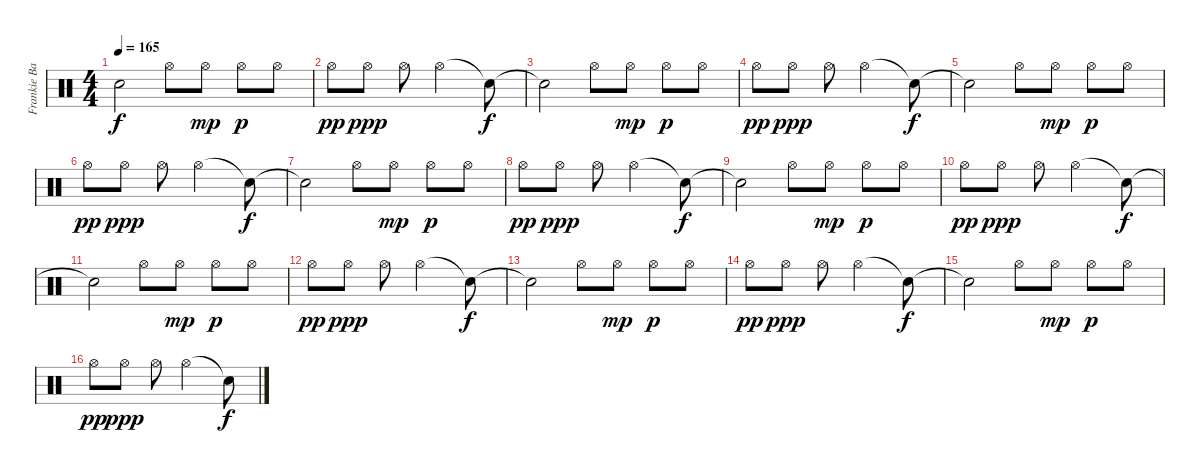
\track ("Frankie Banali/Drums" "Frankie Ba") {instrument percussion}
\staff {score}
\articulation defaults
\ts (4 4)
\tempo 165
\clef neutral
\ks c "Snare (hit)"{t}.2{dy f} "Hi-Hat (open)".8 "Hi-Hat (open)".8{dy mp} "Hi-Hat (open)".8{dy p} "Hi-Hat (open)".8
|
"Hi-Hat (open)".8{dy pp} "Hi-Hat (open)".8{dy ppp} "Hi-Hat (open)".8 "Hi-Hat (open)".2 "Snare (hit)"{t}.8{dy f} |
"Snare (hit)"{t}.2 "Hi-Hat (open)".8 "Hi-Hat (open)".8{dy mp} "Hi-Hat (open)".8{dy p} "Hi-Hat (open)".8 |
"Hi-Hat (open)".8{dy pp} "Hi-Hat (open)".8{dy ppp} "Hi-Hat (open)".8 "Hi-Hat (open)".2 "Snare (hit)"{t}.8{dy f} |
"Snare (hit)"{t}.2 "Hi-Hat (open)".8 "Hi-Hat (open)".8{dy mp} "Hi-Hat (open)".8{dy p} "Hi-Hat (open)".8 |
"Hi-Hat (open)".8{dy pp} "Hi-Hat (open)".8{dy ppp} "Hi-Hat (open)".8 "Hi-Hat (open)".2 "Snare (hit)"{t}.8{dy f} |
"Snare (hit)"{t}.2 "Hi-Hat (open)".8 "Hi-Hat (open)".8{dy mp} "Hi-Hat (open)".8{dy p} "Hi-Hat (open)".8 |
"Hi-Hat (open)".8{dy pp} "Hi-Hat (open)".8{dy ppp} "Hi-Hat (open)".8 "Hi-Hat (open)".2 "Snare (hit)"{t}.8{dy f} |
"Snare (hit)"{t}.2 "Hi-Hat (open)".8 "Hi-Hat (open)".8{dy mp} "Hi-Hat (open)".8{dy p} "Hi-Hat (open)".8 |
"Hi-Hat (open)".8{dy pp} "Hi-Hat (open)".8{dy ppp} "Hi-Hat (open)".8 "Hi-Hat (open)".2 "Snare (hit)"{t}.8{dy f} |
"Snare (hit)"{t}.2 "Hi-Hat (open)".8 "Hi-Hat (open)".8{dy mp} "Hi-Hat (open)".8{dy p} "Hi-Hat (open)".8 |
"Hi-Hat (open)".8{dy pp} "Hi-Hat (open)".8{dy ppp} "Hi-Hat (open)".8 "Hi-Hat (open)".2 "Snare (hit)"{t}.8{dy f} |
"Snare (hit)"{t}.2 "Hi-Hat (open)".8 "Hi-Hat (open)".8{dy mp} "Hi-Hat (open)".8{dy p} "Hi-Hat (open)".8 |
"Hi-Hat (open)".8{dy pp} "Hi-Hat (open)".8{dy ppp} "Hi-Hat (open)".8 "Hi-Hat (open)".2 "Snare (hit)"{t}.8{dy f} |
"Snare (hit)"{t}.2 "Hi-Hat (open)".8 "Hi-Hat (open)".8{dy mp} "Hi-Hat (open)".8{dy p} "Hi-Hat (open)".8 |
"Hi-Hat (open)".8{dy pp} "Hi-Hat (open)".8{dy ppp} "Hi-Hat (open)".8 "Hi-Hat (open)".2 "Snare (hit)"{t}.8{dy f}
